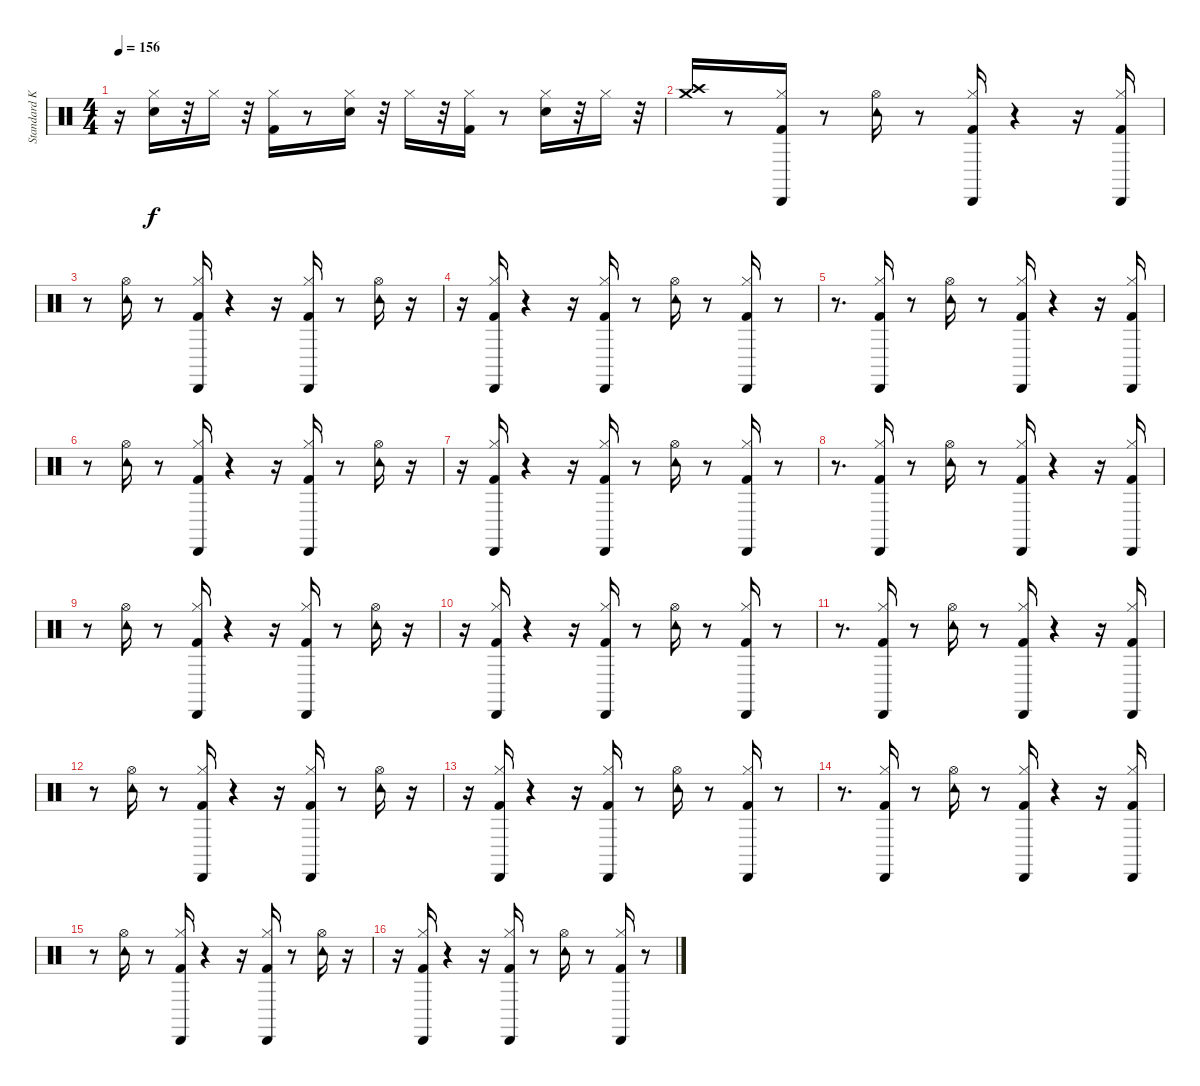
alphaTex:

\track ("Standard Kit" "Standard K") {instrument percussion}
\staff {score}
\articulation defaults
\ts (4 4)
\tempo 156
\clef neutral
\ks c
r.16{dy f} ("Electric Snare (hit)" "Hi-Hat (closed)").16 r.32 "Hi-Hat (closed)".16 r.32 ("Kick (hit) 2" "Hi-Hat (closed)").16 r.8 ("Electric Snare (hit)" "Hi-Hat (closed)").16 r.32 "Hi-Hat (closed)".16 r.32 ("Kick (hit) 2" "Hi-Hat (closed)").16 r.8 ("Electric Snare (hit)" "Hi-Hat (closed)").16 r.32 "Hi-Hat (closed)".16 r.32 |
("Crash high (hit)" "Crash medium (hit)").16 r.8 ("Kick (hit) 2" "Hi-Hat (closed)" "Cabasa (hit)").16 r.8 ("Hi-Hat (open)" "Tambourine (hit)").16 r.8 ("Kick (hit) 2" "Hi-Hat (closed)" "Cabasa (hit)").16 r.4 r.16 ("Kick (hit) 2" "Hi-Hat (closed)" "Cabasa (hit)").16 |
r.8 ("Hi-Hat (open)" "Tambourine (hit)").16 r.8 ("Kick (hit) 2" "Hi-Hat (closed)" "Cabasa (hit)").16 r.4 r.16 ("Kick (hit) 2" "Hi-Hat (closed)" "Cabasa (hit)").16 r.8 ("Hi-Hat (open)" "Tambourine (hit)").16 r.16 |
r.16 ("Kick (hit) 2" "Hi-Hat (closed)" "Cabasa (hit)").16 r.4 r.16 ("Kick (hit) 2" "Hi-Hat (closed)" "Cabasa (hit)").16 r.8 ("Hi-Hat (open)" "Tambourine (hit)").16 r.8 ("Kick (hit) 2" "Hi-Hat (closed)" "Cabasa (hit)").16 r.8 |
r.8{d} ("Kick (hit) 2" "Hi-Hat (closed)" "Cabasa (hit)").16 r.8 ("Hi-Hat (open)" "Tambourine (hit)").16 r.8 ("Kick (hit) 2" "Hi-Hat (closed)" "Cabasa (hit)").16 r.4 r.16 ("Kick (hit) 2" "Hi-Hat (closed)" "Cabasa (hit)").16 |
r.8 ("Hi-Hat (open)" "Tambourine (hit)").16 r.8 ("Kick (hit) 2" "Hi-Hat (closed)" "Cabasa (hit)").16 r.4 r.16 ("Kick (hit) 2" "Hi-Hat (closed)" "Cabasa (hit)").16 r.8 ("Hi-Hat (open)" "Tambourine (hit)").16 r.16 |
r.16 ("Kick (hit) 2" "Hi-Hat (closed)" "Cabasa (hit)").16 r.4 r.16 ("Kick (hit) 2" "Hi-Hat (closed)" "Cabasa (hit)").16 r.8 ("Hi-Hat (open)" "Tambourine (hit)").16 r.8 ("Kick (hit) 2" "Hi-Hat (closed)" "Cabasa (hit)").16 r.8 |
r.8{d} ("Kick (hit) 2" "Hi-Hat (closed)" "Cabasa (hit)").16 r.8 ("Hi-Hat (open)" "Tambourine (hit)").16 r.8 ("Kick (hit) 2" "Hi-Hat (closed)" "Cabasa (hit)").16 r.4 r.16 ("Kick (hit) 2" "Hi-Hat (closed)" "Cabasa (hit)").16 |
r.8 ("Hi-Hat (open)" "Tambourine (hit)").16 r.8 ("Kick (hit) 2" "Hi-Hat (closed)" "Cabasa (hit)").16 r.4 r.16 ("Kick (hit) 2" "Hi-Hat (closed)" "Cabasa (hit)").16 r.8 ("Hi-Hat (open)" "Tambourine (hit)").16 r.16 |
r.16 ("Kick (hit) 2" "Hi-Hat (closed)" "Cabasa (hit)").16 r.4 r.16 ("Kick (hit) 2" "Hi-Hat (closed)" "Cabasa (hit)").16 r.8 ("Hi-Hat (open)" "Tambourine (hit)").16 r.8 ("Kick (hit) 2" "Hi-Hat (closed)" "Cabasa (hit)").16 r.8 |
r.8{d} ("Kick (hit) 2" "Hi-Hat (closed)" "Cabasa (hit)").16 r.8 ("Hi-Hat (open)" "Tambourine (hit)").16 r.8 ("Kick (hit) 2" "Hi-Hat (closed)" "Cabasa (hit)").16 r.4 r.16 ("Kick (hit) 2" "Hi-Hat (closed)" "Cabasa (hit)").16 |
r.8 ("Hi-Hat (open)" "Tambourine (hit)").16 r.8 ("Kick (hit) 2" "Hi-Hat (closed)" "Cabasa (hit)").16 r.4 r.16 ("Kick (hit) 2" "Hi-Hat (closed)" "Cabasa (hit)").16 r.8 ("Hi-Hat (open)" "Tambourine (hit)").16 r.16 |
r.16 ("Kick (hit) 2" "Hi-Hat (closed)" "Cabasa (hit)").16 r.4 r.16 ("Kick (hit) 2" "Hi-Hat (closed)" "Cabasa (hit)").16 r.8 ("Hi-Hat (open)" "Tambourine (hit)").16 r.8 ("Kick (hit) 2" "Hi-Hat (closed)" "Cabasa (hit)").16 r.8 |
r.8{d} ("Kick (hit) 2" "Hi-Hat (closed)" "Cabasa (hit)").16 r.8 ("Hi-Hat (open)" "Tambourine (hit)").16 r.8 ("Kick (hit) 2" "Hi-Hat (closed)" "Cabasa (hit)").16 r.4 r.16 ("Kick (hit) 2" "Hi-Hat (closed)" "Cabasa (hit)").16 |
r.8 ("Hi-Hat (open)" "Tambourine (hit)").16 r.8 ("Kick (hit) 2" "Hi-Hat (closed)" "Cabasa (hit)").16 r.4 r.16 ("Kick (hit) 2" "Hi-Hat (closed)" "Cabasa (hit)").16 r.8 ("Hi-Hat (open)" "Tambourine (hit)").16 r.16 |
r.16 ("Kick (hit) 2" "Hi-Hat (closed)" "Cabasa (hit)").16 r.4 r.16 ("Kick (hit) 2" "Hi-Hat (closed)" "Cabasa (hit)").16 r.8 ("Hi-Hat (open)" "Tambourine (hit)").16 r.8 ("Kick (hit) 2" "Hi-Hat (closed)" "Cabasa (hit)").16 r.8
